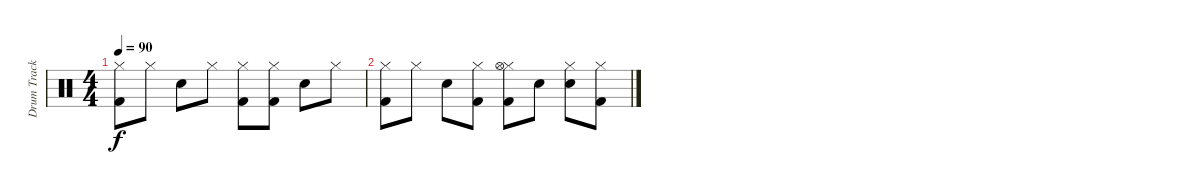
\track ("Drum Track" "Drum Track") {instrument percussion}
\staff {score}
\articulation defaults
\ts (4 4)
\tempo 90
\clef neutral
\ks c
("Kick (hit) 2" "Hi-Hat (closed)").8{dy f} "Hi-Hat (closed)".8 "Electric Snare (hit)".8 "Hi-Hat (closed)".8 ("Kick (hit) 2" "Hi-Hat (closed)").8 ("Kick (hit) 2" "Hi-Hat (closed)").8 "Snare (hit) 2".8 "Hi-Hat (closed)".8 |
("Kick (hit) 2" "Hi-Hat (closed)").8 "Hi-Hat (closed)".8 "Electric Snare (hit)".8 ("Kick (hit) 2" "Hi-Hat (closed)").8 ("Kick (hit) 2" "Hi-Hat (closed)" "Hi-Hat (open)").8 "Electric Snare (hit)".8 ("Snare (hit) 2" "Hi-Hat (closed)").8 ("Kick (hit) 2" "Hi-Hat (closed)").8
